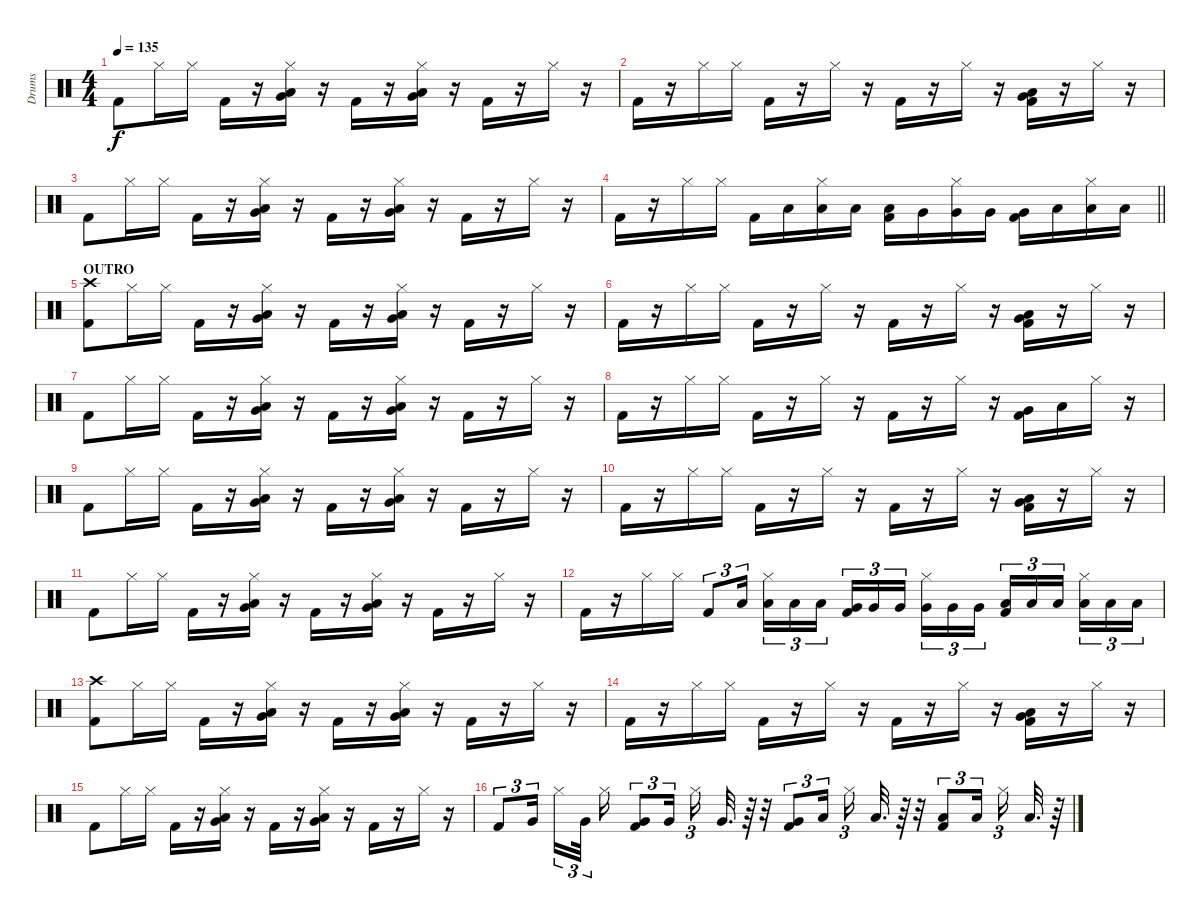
\track ("Drums" "Drums") {instrument percussion}
\staff {score}
\articulation defaults
\ts (4 4)
\tempo 135
\clef neutral
\ks c "Kick (hit) 2".8{dy f} "Hi-Hat (closed)".16 "Hi-Hat (closed)".16 "Kick (hit) 2".16
r.16 ("Hi-Hat (closed)" "Very Low Tom (hit)" "Low Floor Tom (hit)").16 r.16 "Kick (hit) 2".16 r.16 ("Hi-Hat (closed)" "Low Floor Tom (hit)" "Very Low Tom (hit)").16 r.16 "Kick (hit) 2".16 r.16 "Hi-Hat (closed)".16 r.16 |
"Kick (hit) 2".16 r.16 "Hi-Hat (closed)".16 "Hi-Hat (closed)".16 "Kick (hit) 2".16 r.16 "Hi-Hat (closed)".16 r.16 "Kick (hit) 2".16 r.16 "Hi-Hat (closed)".16 r.16 ("Kick (hit) 2" "Low Floor Tom (hit)" "Very Low Tom (hit)").16 r.16 "Hi-Hat (closed)".16 r.16 |
"Kick (hit) 2".8 "Hi-Hat (closed)".16 "Hi-Hat (closed)".16 "Kick (hit) 2".16 r.16 ("Hi-Hat (closed)" "Very Low Tom (hit)" "Low Floor Tom (hit)").16 r.16 "Kick (hit) 2".16 r.16 ("Hi-Hat (closed)" "Low Floor Tom (hit)" "Very Low Tom (hit)").16 r.16 "Kick (hit) 2".16 r.16 "Hi-Hat (closed)".16 r.16 |
\barLineRight lightlight "Kick (hit) 2".16
r.16 "Hi-Hat (closed)".16 "Hi-Hat (closed)".16 "Kick (hit) 2".16 "Low Tom (hit)".16 ("Hi-Hat (closed)" "Low Tom (hit)").16 "Low Tom (hit)".16 ("Kick (hit) 2" "Low Tom (hit)").16 "Very Low Tom (hit)".16 ("Hi-Hat (closed)" "Very Low Tom (hit)").16 "Very Low Tom (hit)".16 ("Kick (hit) 2" "Very Low Tom (hit)").16 "Low Floor Tom (hit)".16 ("Hi-Hat (closed)" "Low Floor Tom (hit)").16 "Low Floor Tom (hit)".16 |
\section ("" "OUTRO")
("Kick (hit) 2" "Crash high (hit)").8 "Hi-Hat (closed)".16 "Hi-Hat (closed)".16 "Kick (hit) 2".16 r.16 ("Hi-Hat (closed)" "Very Low Tom (hit)" "Low Floor Tom (hit)").16 r.16 "Kick (hit) 2".16 r.16 ("Hi-Hat (closed)" "Low Floor Tom (hit)" "Very Low Tom (hit)").16 r.16 "Kick (hit) 2".16 r.16 "Hi-Hat (closed)".16 r.16 |
"Kick (hit) 2".16 r.16 "Hi-Hat (closed)".16 "Hi-Hat (closed)".16 "Kick (hit) 2".16 r.16 "Hi-Hat (closed)".16 r.16 "Kick (hit) 2".16 r.16 "Hi-Hat (closed)".16 r.16 ("Kick (hit) 2" "Low Floor Tom (hit)" "Very Low Tom (hit)").16 r.16 "Hi-Hat (closed)".16 r.16 |
"Kick (hit) 2".8 "Hi-Hat (closed)".16 "Hi-Hat (closed)".16 "Kick (hit) 2".16 r.16 ("Hi-Hat (closed)" "Very Low Tom (hit)" "Low Floor Tom (hit)").16 r.16 "Kick (hit) 2".16 r.16 ("Hi-Hat (closed)" "Low Floor Tom (hit)" "Very Low Tom (hit)").16 r.16 "Kick (hit) 2".16 r.16 "Hi-Hat (closed)".16 r.16 |
"Kick (hit) 2".16 r.16 "Hi-Hat (closed)".16 "Hi-Hat (closed)".16 "Kick (hit) 2".16 r.16 "Hi-Hat (closed)".16 r.16 "Kick (hit) 2".16 r.16 "Hi-Hat (closed)".16 r.16 ("Kick (hit) 2" "Very Low Tom (hit)").16 "Low Floor Tom (hit)".16 "Hi-Hat (closed)".16 r.16 |
"Kick (hit) 2".8 "Hi-Hat (closed)".16 "Hi-Hat (closed)".16 "Kick (hit) 2".16 r.16 ("Hi-Hat (closed)" "Very Low Tom (hit)" "Low Floor Tom (hit)").16 r.16 "Kick (hit) 2".16 r.16 ("Hi-Hat (closed)" "Low Floor Tom (hit)" "Very Low Tom (hit)").16 r.16 "Kick (hit) 2".16 r.16 "Hi-Hat (closed)".16 r.16 |
"Kick (hit) 2".16 r.16 "Hi-Hat (closed)".16 "Hi-Hat (closed)".16 "Kick (hit) 2".16 r.16 "Hi-Hat (closed)".16 r.16 "Kick (hit) 2".16 r.16 "Hi-Hat (closed)".16 r.16 ("Kick (hit) 2" "Low Floor Tom (hit)" "Very Low Tom (hit)").16 r.16 "Hi-Hat (closed)".16 r.16 |
"Kick (hit) 2".8 "Hi-Hat (closed)".16 "Hi-Hat (closed)".16 "Kick (hit) 2".16 r.16 ("Hi-Hat (closed)" "Very Low Tom (hit)" "Low Floor Tom (hit)").16 r.16 "Kick (hit) 2".16 r.16 ("Hi-Hat (closed)" "Low Floor Tom (hit)" "Very Low Tom (hit)").16 r.16 "Kick (hit) 2".16 r.16 "Hi-Hat (closed)".16 r.16 |
"Kick (hit) 2".16 r.16 "Hi-Hat (closed)".16 "Hi-Hat (closed)".16 "Kick (hit) 2".8{tu (3 2)} "Low Tom (hit)".16{tu (3 2) beam splitsecondary} ("Hi-Hat (closed)" "Low Tom (hit)").16{tu (3 2)} "Low Tom (hit)".16{tu (3 2)} "Low Tom (hit)".16{tu (3 2)} ("Kick (hit) 2" "Very Low Tom (hit)").16{tu (3 2)} "Very Low Tom (hit)".16{tu (3 2)} "Very Low Tom (hit)".16{tu (3 2) beam splitsecondary} ("Hi-Hat (closed)" "Very Low Tom (hit)").16{tu (3 2)} "Very Low Tom (hit)".16{tu (3 2)} "Very Low Tom (hit)".16{tu (3 2)} ("Kick (hit) 2" "Low Floor Tom (hit)").16{tu (3 2)} "Low Floor Tom (hit)".16{tu (3 2)} "Low Floor Tom (hit)".16{tu (3 2) beam splitsecondary} ("Hi-Hat (closed)" "Low Floor Tom (hit)").16{tu (3 2)} "Low Floor Tom (hit)".16{tu (3 2)} "Low Floor Tom (hit)".16{tu (3 2)} |
("Kick (hit) 2" "Crash high (hit)").8 "Hi-Hat (closed)".16 "Hi-Hat (closed)".16 "Kick (hit) 2".16 r.16 ("Hi-Hat (closed)" "Very Low Tom (hit)" "Low Floor Tom (hit)").16 r.16 "Kick (hit) 2".16 r.16 ("Hi-Hat (closed)" "Low Floor Tom (hit)" "Very Low Tom (hit)").16 r.16 "Kick (hit) 2".16 r.16 "Hi-Hat (closed)".16 r.16 |
"Kick (hit) 2".16 r.16 "Hi-Hat (closed)".16 "Hi-Hat (closed)".16 "Kick (hit) 2".16 r.16 "Hi-Hat (closed)".16 r.16 "Kick (hit) 2".16 r.16 "Hi-Hat (closed)".16 r.16 ("Kick (hit) 2" "Low Floor Tom (hit)" "Very Low Tom (hit)").16 r.16 "Hi-Hat (closed)".16 r.16 |
"Kick (hit) 2".8 "Hi-Hat (closed)".16 "Hi-Hat (closed)".16 "Kick (hit) 2".16 r.16 ("Hi-Hat (closed)" "Very Low Tom (hit)" "Low Floor Tom (hit)").16 r.16 "Kick (hit) 2".16 r.16 ("Hi-Hat (closed)" "Low Floor Tom (hit)" "Very Low Tom (hit)").16 r.16 "Kick (hit) 2".16 r.16 "Hi-Hat (closed)".16 r.16 |
"Kick (hit) 2".8{tu (3 2)} "Very Low Tom (hit)".16{tu (3 2) beam splitsecondary} "Hi-Hat (closed)".16{tu (3 2)} "Very Low Tom (hit)".32{tu (3 2) beam splitsecondary} "Hi-Hat (closed)".16 ("Kick (hit) 2" "Very Low Tom (hit)").8{tu (3 2)} "Very Low Tom (hit)".16{tu (3 2) beam splitsecondary} "Hi-Hat (closed)".16{tu (3 2)} "Very Low Tom (hit)".32{d} r.64 r.32 ("Kick (hit) 2" "Very Low Tom (hit)").8{tu (3 2)} "Low Floor Tom (hit)".16{tu (3 2) beam splitsecondary} "Hi-Hat (closed)".16{tu (3 2)} "Low Floor Tom (hit)".32{d} r.64 r.32 ("Kick (hit) 2" "Low Floor Tom (hit)").8{tu (3 2)} "Low Floor Tom (hit)".16{tu (3 2) beam splitsecondary} "Hi-Hat (closed)".16{tu (3 2)} "Low Floor Tom (hit)".32{d} r.64
